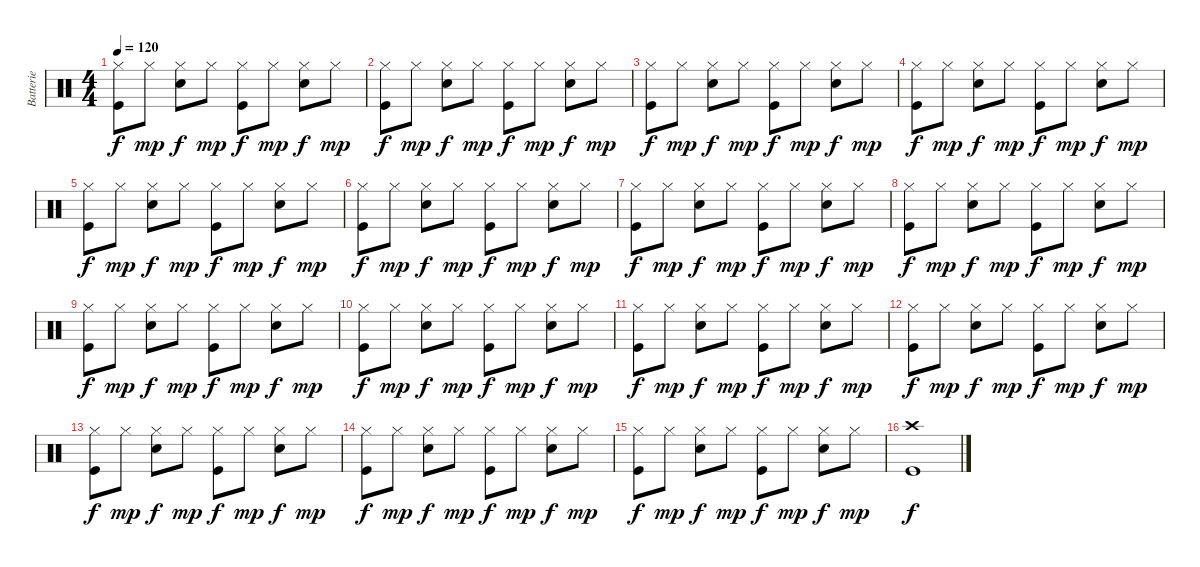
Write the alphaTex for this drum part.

\track ("Batterie" "Batterie") {instrument percussion}
\staff {score}
\articulation defaults
\ts (4 4)
\tempo 120
\clef neutral
\ks c
("Hi-Hat (closed)" "Kick (hit)").8{dy f} "Hi-Hat (closed)".8{dy mp} ("Hi-Hat (closed)" "Snare (hit) 2").8{dy f} "Hi-Hat (closed)".8{dy mp} ("Hi-Hat (closed)" "Kick (hit)").8{dy f} "Hi-Hat (closed)".8{dy mp} ("Hi-Hat (closed)" "Snare (hit) 2").8{dy f} "Hi-Hat (closed)".8{dy mp} |
("Hi-Hat (closed)" "Kick (hit)").8{dy f} "Hi-Hat (closed)".8{dy mp} ("Hi-Hat (closed)" "Snare (hit) 2").8{dy f} "Hi-Hat (closed)".8{dy mp} ("Hi-Hat (closed)" "Kick (hit)").8{dy f} "Hi-Hat (closed)".8{dy mp} ("Hi-Hat (closed)" "Snare (hit) 2").8{dy f} "Hi-Hat (closed)".8{dy mp} |
("Hi-Hat (closed)" "Kick (hit)").8{dy f} "Hi-Hat (closed)".8{dy mp} ("Hi-Hat (closed)" "Snare (hit) 2").8{dy f} "Hi-Hat (closed)".8{dy mp} ("Hi-Hat (closed)" "Kick (hit)").8{dy f} "Hi-Hat (closed)".8{dy mp} ("Hi-Hat (closed)" "Snare (hit) 2").8{dy f} "Hi-Hat (closed)".8{dy mp} |
("Hi-Hat (closed)" "Kick (hit)").8{dy f} "Hi-Hat (closed)".8{dy mp} ("Hi-Hat (closed)" "Snare (hit) 2").8{dy f} "Hi-Hat (closed)".8{dy mp} ("Hi-Hat (closed)" "Kick (hit)").8{dy f} "Hi-Hat (closed)".8{dy mp} ("Hi-Hat (closed)" "Snare (hit) 2").8{dy f} "Hi-Hat (closed)".8{dy mp} |
("Hi-Hat (closed)" "Kick (hit)").8{dy f} "Hi-Hat (closed)".8{dy mp} ("Hi-Hat (closed)" "Snare (hit) 2").8{dy f} "Hi-Hat (closed)".8{dy mp} ("Hi-Hat (closed)" "Kick (hit)").8{dy f} "Hi-Hat (closed)".8{dy mp} ("Hi-Hat (closed)" "Snare (hit) 2").8{dy f} "Hi-Hat (closed)".8{dy mp} |
("Hi-Hat (closed)" "Kick (hit)").8{dy f} "Hi-Hat (closed)".8{dy mp} ("Hi-Hat (closed)" "Snare (hit) 2").8{dy f} "Hi-Hat (closed)".8{dy mp} ("Hi-Hat (closed)" "Kick (hit)").8{dy f} "Hi-Hat (closed)".8{dy mp} ("Hi-Hat (closed)" "Snare (hit) 2").8{dy f} "Hi-Hat (closed)".8{dy mp} |
("Hi-Hat (closed)" "Kick (hit)").8{dy f} "Hi-Hat (closed)".8{dy mp} ("Hi-Hat (closed)" "Snare (hit) 2").8{dy f} "Hi-Hat (closed)".8{dy mp} ("Hi-Hat (closed)" "Kick (hit)").8{dy f} "Hi-Hat (closed)".8{dy mp} ("Hi-Hat (closed)" "Snare (hit) 2").8{dy f} "Hi-Hat (closed)".8{dy mp} |
("Hi-Hat (closed)" "Kick (hit)").8{dy f} "Hi-Hat (closed)".8{dy mp} ("Hi-Hat (closed)" "Snare (hit) 2").8{dy f} "Hi-Hat (closed)".8{dy mp} ("Hi-Hat (closed)" "Kick (hit)").8{dy f} "Hi-Hat (closed)".8{dy mp} ("Hi-Hat (closed)" "Snare (hit) 2").8{dy f} "Hi-Hat (closed)".8{dy mp} |
("Hi-Hat (closed)" "Kick (hit)").8{dy f} "Hi-Hat (closed)".8{dy mp} ("Hi-Hat (closed)" "Snare (hit) 2").8{dy f} "Hi-Hat (closed)".8{dy mp} ("Hi-Hat (closed)" "Kick (hit)").8{dy f} "Hi-Hat (closed)".8{dy mp} ("Hi-Hat (closed)" "Snare (hit) 2").8{dy f} "Hi-Hat (closed)".8{dy mp} |
("Hi-Hat (closed)" "Kick (hit)").8{dy f} "Hi-Hat (closed)".8{dy mp} ("Hi-Hat (closed)" "Snare (hit) 2").8{dy f} "Hi-Hat (closed)".8{dy mp} ("Hi-Hat (closed)" "Kick (hit)").8{dy f} "Hi-Hat (closed)".8{dy mp} ("Hi-Hat (closed)" "Snare (hit) 2").8{dy f} "Hi-Hat (closed)".8{dy mp} |
("Hi-Hat (closed)" "Kick (hit)").8{dy f} "Hi-Hat (closed)".8{dy mp} ("Hi-Hat (closed)" "Snare (hit) 2").8{dy f} "Hi-Hat (closed)".8{dy mp} ("Hi-Hat (closed)" "Kick (hit)").8{dy f} "Hi-Hat (closed)".8{dy mp} ("Hi-Hat (closed)" "Snare (hit) 2").8{dy f} "Hi-Hat (closed)".8{dy mp} |
("Hi-Hat (closed)" "Kick (hit)").8{dy f} "Hi-Hat (closed)".8{dy mp} ("Hi-Hat (closed)" "Snare (hit) 2").8{dy f} "Hi-Hat (closed)".8{dy mp} ("Hi-Hat (closed)" "Kick (hit)").8{dy f} "Hi-Hat (closed)".8{dy mp} ("Hi-Hat (closed)" "Snare (hit) 2").8{dy f} "Hi-Hat (closed)".8{dy mp} |
("Hi-Hat (closed)" "Kick (hit)").8{dy f} "Hi-Hat (closed)".8{dy mp} ("Hi-Hat (closed)" "Snare (hit) 2").8{dy f} "Hi-Hat (closed)".8{dy mp} ("Hi-Hat (closed)" "Kick (hit)").8{dy f} "Hi-Hat (closed)".8{dy mp} ("Hi-Hat (closed)" "Snare (hit) 2").8{dy f} "Hi-Hat (closed)".8{dy mp} |
("Hi-Hat (closed)" "Kick (hit)").8{dy f} "Hi-Hat (closed)".8{dy mp} ("Hi-Hat (closed)" "Snare (hit) 2").8{dy f} "Hi-Hat (closed)".8{dy mp} ("Hi-Hat (closed)" "Kick (hit)").8{dy f} "Hi-Hat (closed)".8{dy mp} ("Hi-Hat (closed)" "Snare (hit) 2").8{dy f} "Hi-Hat (closed)".8{dy mp} |
("Hi-Hat (closed)" "Kick (hit)").8{dy f} "Hi-Hat (closed)".8{dy mp} ("Hi-Hat (closed)" "Snare (hit) 2").8{dy f} "Hi-Hat (closed)".8{dy mp} ("Hi-Hat (closed)" "Kick (hit)").8{dy f} "Hi-Hat (closed)".8{dy mp} ("Hi-Hat (closed)" "Snare (hit) 2").8{dy f} "Hi-Hat (closed)".8{dy mp} |
("Crash high (hit)" "Kick (hit)").1{dy f}
